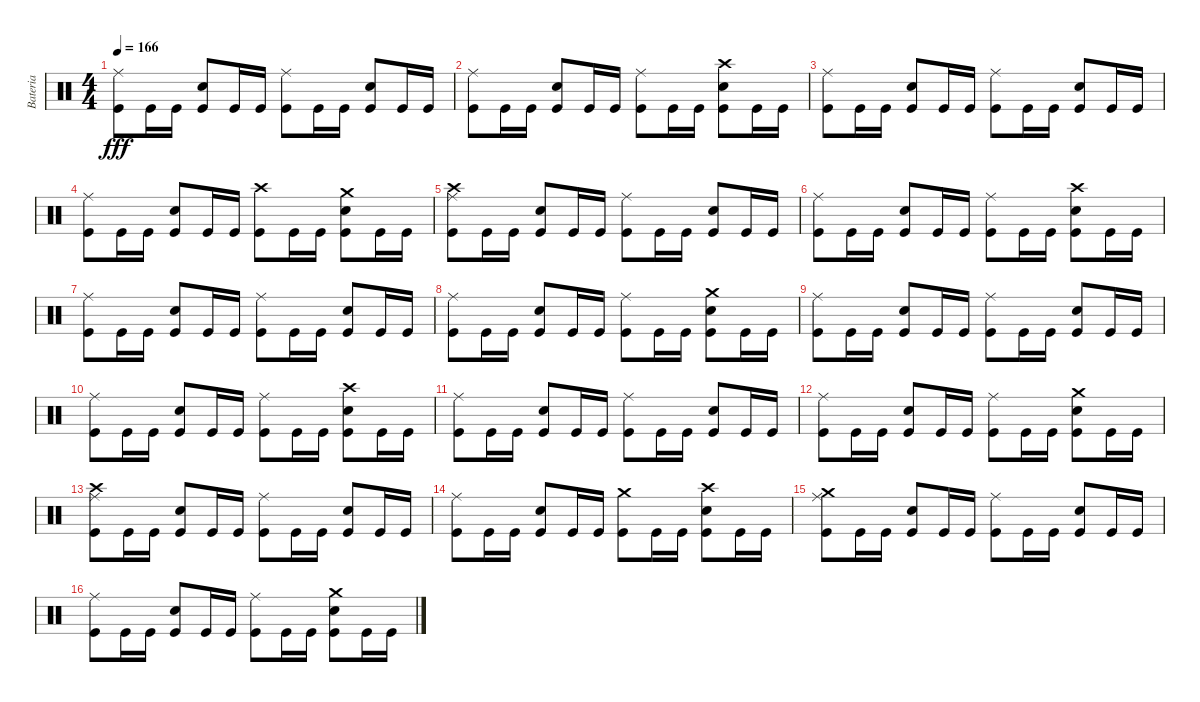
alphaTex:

\track ("Bateria" "Bateria") {instrument percussion}
\staff {score}
\articulation defaults
\ts (4 4)
\tempo 166
\clef neutral
\ks c
("Ride (middle)" "Kick (hit)").8{dy fff} "Kick (hit)".16 "Kick (hit)".16 ("Snare (hit) 2" "Kick (hit)").8 "Kick (hit)".16 "Kick (hit)".16 ("Ride (middle)" "Kick (hit)").8 "Kick (hit)".16 "Kick (hit)".16 ("Snare (hit) 2" "Kick (hit)").8 "Kick (hit)".16 "Kick (hit)".16 |
("Ride (middle)" "Kick (hit)").8 "Kick (hit)".16 "Kick (hit)".16 ("Snare (hit) 2" "Kick (hit)").8 "Kick (hit)".16 "Kick (hit)".16 ("Ride (middle)" "Kick (hit)").8 "Kick (hit)".16 "Kick (hit)".16 ("Snare (hit) 2" "Kick (hit)" "Crash high (hit)").8 "Kick (hit)".16 "Kick (hit)".16 |
("Ride (middle)" "Kick (hit)").8 "Kick (hit)".16 "Kick (hit)".16 ("Snare (hit) 2" "Kick (hit)").8 "Kick (hit)".16 "Kick (hit)".16 ("Ride (middle)" "Kick (hit)").8 "Kick (hit)".16 "Kick (hit)".16 ("Snare (hit) 2" "Kick (hit)").8 "Kick (hit)".16 "Kick (hit)".16 |
("Ride (middle)" "Kick (hit)").8 "Kick (hit)".16 "Kick (hit)".16 ("Snare (hit) 2" "Kick (hit)").8 "Kick (hit)".16 "Kick (hit)".16 ("Kick (hit)" "Crash high (hit)").8 "Kick (hit)".16 "Kick (hit)".16 ("Snare (hit) 2" "Kick (hit)" "Crash medium (hit)").8 "Kick (hit)".16 "Kick (hit)".16 |
("Ride (middle)" "Kick (hit)" "Crash high (hit)").8 "Kick (hit)".16 "Kick (hit)".16 ("Snare (hit) 2" "Kick (hit)").8 "Kick (hit)".16 "Kick (hit)".16 ("Ride (middle)" "Kick (hit)").8 "Kick (hit)".16 "Kick (hit)".16 ("Snare (hit) 2" "Kick (hit)").8 "Kick (hit)".16 "Kick (hit)".16 |
("Ride (middle)" "Kick (hit)").8 "Kick (hit)".16 "Kick (hit)".16 ("Snare (hit) 2" "Kick (hit)").8 "Kick (hit)".16 "Kick (hit)".16 ("Ride (middle)" "Kick (hit)").8 "Kick (hit)".16 "Kick (hit)".16 ("Snare (hit) 2" "Kick (hit)" "Crash high (hit)").8 "Kick (hit)".16 "Kick (hit)".16 |
("Ride (middle)" "Kick (hit)").8 "Kick (hit)".16 "Kick (hit)".16 ("Snare (hit) 2" "Kick (hit)").8 "Kick (hit)".16 "Kick (hit)".16 ("Ride (middle)" "Kick (hit)").8 "Kick (hit)".16 "Kick (hit)".16 ("Snare (hit) 2" "Kick (hit)").8 "Kick (hit)".16 "Kick (hit)".16 |
("Ride (middle)" "Kick (hit)").8 "Kick (hit)".16 "Kick (hit)".16 ("Snare (hit) 2" "Kick (hit)").8 "Kick (hit)".16 "Kick (hit)".16 ("Ride (middle)" "Kick (hit)").8 "Kick (hit)".16 "Kick (hit)".16 ("Snare (hit) 2" "Kick (hit)" "Crash medium (hit)").8 "Kick (hit)".16 "Kick (hit)".16 |
("Ride (middle)" "Kick (hit)").8 "Kick (hit)".16 "Kick (hit)".16 ("Snare (hit) 2" "Kick (hit)").8 "Kick (hit)".16 "Kick (hit)".16 ("Ride (middle)" "Kick (hit)").8 "Kick (hit)".16 "Kick (hit)".16 ("Snare (hit) 2" "Kick (hit)").8 "Kick (hit)".16 "Kick (hit)".16 |
("Ride (middle)" "Kick (hit)").8 "Kick (hit)".16 "Kick (hit)".16 ("Snare (hit) 2" "Kick (hit)").8 "Kick (hit)".16 "Kick (hit)".16 ("Ride (middle)" "Kick (hit)").8 "Kick (hit)".16 "Kick (hit)".16 ("Snare (hit) 2" "Kick (hit)" "Crash high (hit)").8 "Kick (hit)".16 "Kick (hit)".16 |
("Ride (middle)" "Kick (hit)").8 "Kick (hit)".16 "Kick (hit)".16 ("Snare (hit) 2" "Kick (hit)").8 "Kick (hit)".16 "Kick (hit)".16 ("Ride (middle)" "Kick (hit)").8 "Kick (hit)".16 "Kick (hit)".16 ("Snare (hit) 2" "Kick (hit)").8 "Kick (hit)".16 "Kick (hit)".16 |
("Ride (middle)" "Kick (hit)").8 "Kick (hit)".16 "Kick (hit)".16 ("Snare (hit) 2" "Kick (hit)").8 "Kick (hit)".16 "Kick (hit)".16 ("Ride (middle)" "Kick (hit)").8 "Kick (hit)".16 "Kick (hit)".16 ("Snare (hit) 2" "Kick (hit)" "Crash medium (hit)").8 "Kick (hit)".16 "Kick (hit)".16 |
("Ride (middle)" "Kick (hit)" "Crash high (hit)").8 "Kick (hit)".16 "Kick (hit)".16 ("Snare (hit) 2" "Kick (hit)").8 "Kick (hit)".16 "Kick (hit)".16 ("Ride (middle)" "Kick (hit)").8 "Kick (hit)".16 "Kick (hit)".16 ("Snare (hit) 2" "Kick (hit)").8 "Kick (hit)".16 "Kick (hit)".16 |
("Ride (middle)" "Kick (hit)").8 "Kick (hit)".16 "Kick (hit)".16 ("Snare (hit) 2" "Kick (hit)").8 "Kick (hit)".16 "Kick (hit)".16 ("Kick (hit)" "Crash medium (hit)").8 "Kick (hit)".16 "Kick (hit)".16 ("Snare (hit) 2" "Kick (hit)" "Crash high (hit)").8 "Kick (hit)".16 "Kick (hit)".16 |
("Ride (middle)" "Kick (hit)" "Crash medium (hit)").8 "Kick (hit)".16 "Kick (hit)".16 ("Snare (hit) 2" "Kick (hit)").8 "Kick (hit)".16 "Kick (hit)".16 ("Ride (middle)" "Kick (hit)").8 "Kick (hit)".16 "Kick (hit)".16 ("Snare (hit) 2" "Kick (hit)").8 "Kick (hit)".16 "Kick (hit)".16 |
("Ride (middle)" "Kick (hit)").8 "Kick (hit)".16 "Kick (hit)".16 ("Snare (hit) 2" "Kick (hit)").8 "Kick (hit)".16 "Kick (hit)".16 ("Ride (middle)" "Kick (hit)").8 "Kick (hit)".16 "Kick (hit)".16 ("Snare (hit) 2" "Kick (hit)" "Crash medium (hit)").8 "Kick (hit)".16 "Kick (hit)".16
